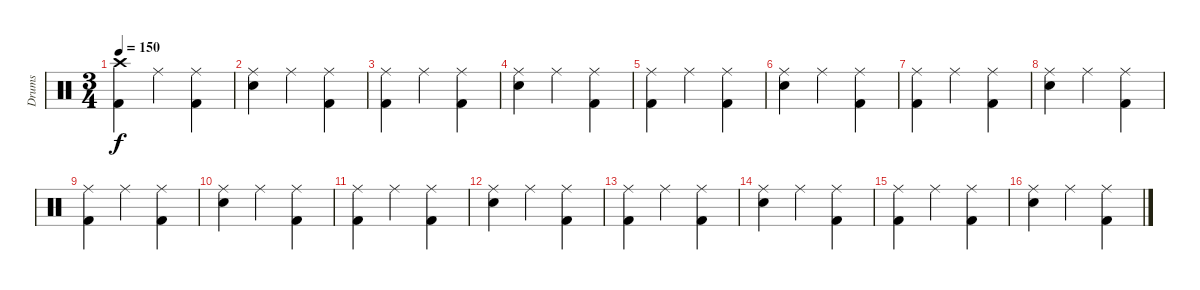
\track ("Drums" "Drums") {instrument percussion}
\staff {score}
\articulation defaults
\ts (3 4)
\tempo 150
\clef neutral
\ks c
("Crash high (hit)" "Kick (hit) 2").4{dy f} "Ride (middle)".4 ("Ride (middle)" "Kick (hit) 2").4 |
("Ride (middle)" "Snare (hit) 2").4 "Ride (middle)".4 ("Ride (middle)" "Kick (hit) 2").4 |
("Ride (middle)" "Kick (hit) 2").4 "Ride (middle)".4 ("Ride (middle)" "Kick (hit) 2").4 |
("Ride (middle)" "Snare (hit) 2").4 "Ride (middle)".4 ("Ride (middle)" "Kick (hit) 2").4 |
("Ride (middle)" "Kick (hit) 2").4 "Ride (middle)".4 ("Ride (middle)" "Kick (hit) 2").4 |
("Ride (middle)" "Snare (hit) 2").4 "Ride (middle)".4 ("Ride (middle)" "Kick (hit) 2").4 |
("Ride (middle)" "Kick (hit) 2").4 "Ride (middle)".4 ("Ride (middle)" "Kick (hit) 2").4 |
("Ride (middle)" "Snare (hit) 2").4 "Ride (middle)".4 ("Ride (middle)" "Kick (hit) 2").4 |
("Ride (middle)" "Kick (hit) 2").4 "Ride (middle)".4 ("Ride (middle)" "Kick (hit) 2").4 |
("Ride (middle)" "Snare (hit) 2").4 "Ride (middle)".4 ("Ride (middle)" "Kick (hit) 2").4 |
("Ride (middle)" "Kick (hit) 2").4 "Ride (middle)".4 ("Ride (middle)" "Kick (hit) 2").4 |
("Ride (middle)" "Snare (hit) 2").4 "Ride (middle)".4 ("Ride (middle)" "Kick (hit) 2").4 |
("Ride (middle)" "Kick (hit) 2").4 "Ride (middle)".4 ("Ride (middle)" "Kick (hit) 2").4 |
("Ride (middle)" "Snare (hit) 2").4 "Ride (middle)".4 ("Ride (middle)" "Kick (hit) 2").4 |
("Ride (middle)" "Kick (hit) 2").4 "Ride (middle)".4 ("Ride (middle)" "Kick (hit) 2").4 |
("Ride (middle)" "Snare (hit) 2").4 "Ride (middle)".4 ("Ride (middle)" "Kick (hit) 2").4
